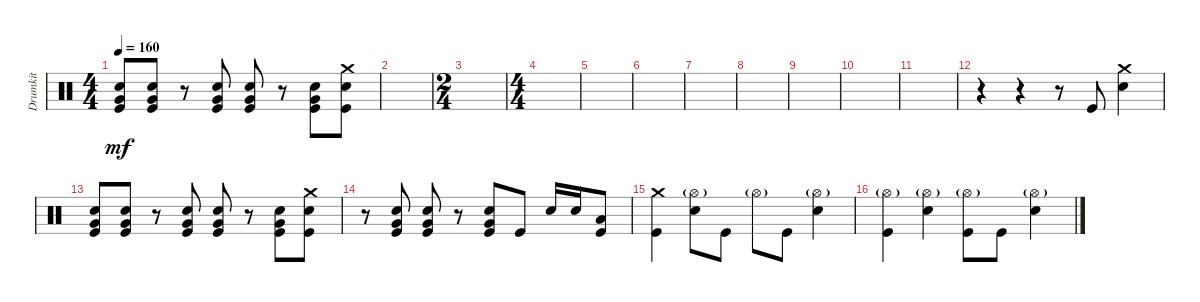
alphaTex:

\track ("Drumkit" "Drumkit") {instrument percussion}
\staff {score}
\articulation defaults
\ts (4 4)
\tempo 160
\clef neutral
\ks c
("Kick (hit)" "Very Low Tom (hit)" "Snare (hit) 2").8{dy mf} ("Kick (hit)" "Very Low Tom (hit)" "Snare (hit) 2").8 r.8 ("Kick (hit)" "Very Low Tom (hit)" "Snare (hit) 2").8 ("Kick (hit)" "Very Low Tom (hit)" "Snare (hit) 2").8 r.8 ("Kick (hit)" "Very Low Tom (hit)" "Snare (hit) 2").8 ("Kick (hit)" "Snare (hit) 2" "Crash medium (hit)").8 |
|
\ts (2 4)
|
\ts (4 4)
|
|
|
|
|
|
|
|
r.4 r.4 r.8 "Kick (hit)".8 ("Snare (hit) 2" "Crash medium (hit)").4 |
("Kick (hit)" "Very Low Tom (hit)" "Snare (hit) 2").8 ("Kick (hit)" "Very Low Tom (hit)" "Snare (hit) 2").8 r.8 ("Kick (hit)" "Very Low Tom (hit)" "Snare (hit) 2").8 ("Kick (hit)" "Very Low Tom (hit)" "Snare (hit) 2").8 r.8 ("Kick (hit)" "Very Low Tom (hit)" "Snare (hit) 2").8 ("Kick (hit)" "Snare (hit) 2" "Crash medium (hit)").8 |
r.8 ("Kick (hit)" "Very Low Tom (hit)" "Snare (hit) 2").8 ("Kick (hit)" "Very Low Tom (hit)" "Snare (hit) 2").8 r.8 ("Kick (hit)" "Very Low Tom (hit)" "Snare (hit) 2").8 "Kick (hit)".8 "Snare (hit) 2".16 "Snare (hit) 2".16 ("Low Tom (hit)" "Kick (hit)").8 |
("Kick (hit)" "Crash medium (hit)").4 ("Snare (hit) 2" "Hi-Hat (open)"{g}).8 "Kick (hit)".8 "Hi-Hat (open)"{g}.8 "Kick (hit)".8 ("Snare (hit) 2" "Hi-Hat (open)"{g}).4 |
("Kick (hit)" "Hi-Hat (open)"{g}).4 ("Hi-Hat (open)"{g} "Snare (hit) 2").4 ("Kick (hit)" "Hi-Hat (open)"{g}).8 "Kick (hit)".8 ("Snare (hit) 2" "Hi-Hat (open)"{g}).4
